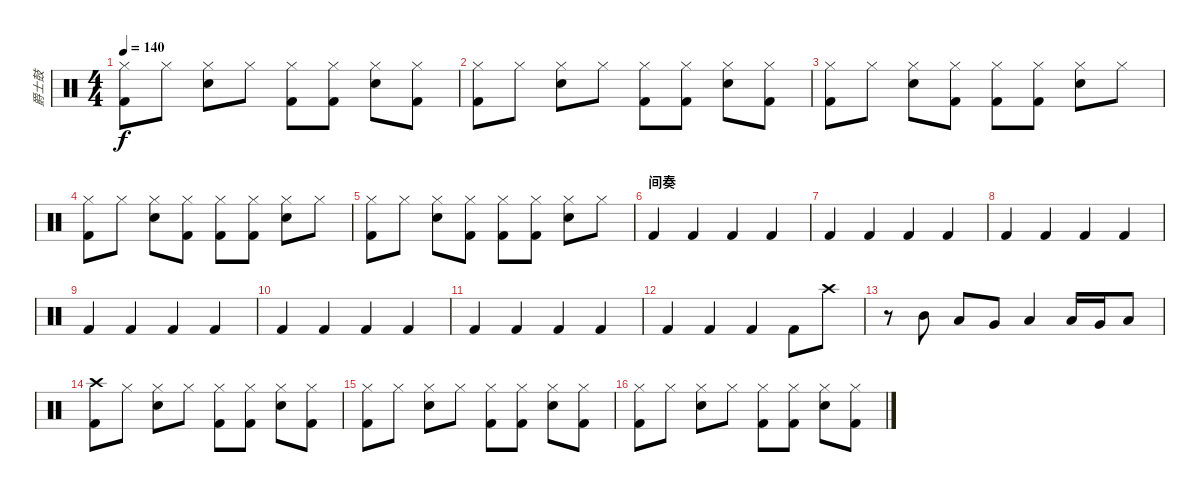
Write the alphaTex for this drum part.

\track ("爵士鼓" "爵士鼓") {instrument percussion}
\staff {score}
\articulation defaults
\ts (4 4)
\tempo 140
\clef neutral
\ks c
("Hi-Hat (closed)" "Kick (hit) 2").8{dy f} "Hi-Hat (closed)".8 ("Hi-Hat (closed)" "Electric Snare (hit)").8 "Hi-Hat (closed)".8 ("Hi-Hat (closed)" "Kick (hit) 2").8 ("Hi-Hat (closed)" "Kick (hit) 2").8 ("Hi-Hat (closed)" "Electric Snare (hit)").8 ("Hi-Hat (closed)" "Kick (hit) 2").8 |
("Hi-Hat (closed)" "Kick (hit) 2").8 "Hi-Hat (closed)".8 ("Hi-Hat (closed)" "Electric Snare (hit)").8 "Hi-Hat (closed)".8 ("Hi-Hat (closed)" "Kick (hit) 2").8 ("Hi-Hat (closed)" "Kick (hit) 2").8 ("Hi-Hat (closed)" "Electric Snare (hit)").8 ("Hi-Hat (closed)" "Kick (hit) 2").8 |
("Hi-Hat (closed)" "Kick (hit) 2").8 "Hi-Hat (closed)".8 ("Hi-Hat (closed)" "Electric Snare (hit)").8 ("Hi-Hat (closed)" "Kick (hit) 2").8 ("Hi-Hat (closed)" "Kick (hit) 2").8 ("Hi-Hat (closed)" "Kick (hit) 2").8 ("Hi-Hat (closed)" "Electric Snare (hit)").8 "Hi-Hat (closed)".8 |
("Hi-Hat (closed)" "Kick (hit) 2").8 "Hi-Hat (closed)".8 ("Hi-Hat (closed)" "Electric Snare (hit)").8 ("Hi-Hat (closed)" "Kick (hit) 2").8 ("Hi-Hat (closed)" "Kick (hit) 2").8 ("Hi-Hat (closed)" "Kick (hit) 2").8 ("Hi-Hat (closed)" "Electric Snare (hit)").8 "Hi-Hat (closed)".8 |
("Hi-Hat (closed)" "Kick (hit) 2").8 "Hi-Hat (closed)".8 ("Hi-Hat (closed)" "Electric Snare (hit)").8 ("Hi-Hat (closed)" "Kick (hit) 2").8 ("Hi-Hat (closed)" "Kick (hit) 2").8 ("Hi-Hat (closed)" "Kick (hit) 2").8 ("Hi-Hat (closed)" "Electric Snare (hit)").8 "Hi-Hat (closed)".8 |
\section ("" "间奏")
"Kick (hit) 2".4 "Kick (hit) 2".4 "Kick (hit) 2".4 "Kick (hit) 2".4 |
"Kick (hit) 2".4 "Kick (hit) 2".4 "Kick (hit) 2".4 "Kick (hit) 2".4 |
"Kick (hit) 2".4 "Kick (hit) 2".4 "Kick (hit) 2".4 "Kick (hit) 2".4 |
"Kick (hit) 2".4 "Kick (hit) 2".4 "Kick (hit) 2".4 "Kick (hit) 2".4 |
"Kick (hit) 2".4 "Kick (hit) 2".4 "Kick (hit) 2".4 "Kick (hit) 2".4 |
"Kick (hit) 2".4 "Kick (hit) 2".4 "Kick (hit) 2".4 "Kick (hit) 2".4 |
"Kick (hit) 2".4 "Kick (hit) 2".4 "Kick (hit) 2".4 "Kick (hit) 2".8 "Crash high (hit)".8 |
r.8 "Mid Tom (hit)".8 "Low Tom (hit)".8 "Very Low Tom (hit)".8 "Low Floor Tom (hit)".4 "Low Tom (hit)".16 "Very Low Tom (hit)".16 "Low Floor Tom (hit)".8 |
("Crash high (hit)" "Kick (hit) 2").8 "Hi-Hat (closed)".8 ("Hi-Hat (closed)" "Electric Snare (hit)").8 "Hi-Hat (closed)".8 ("Hi-Hat (closed)" "Kick (hit) 2").8 ("Hi-Hat (closed)" "Kick (hit) 2").8 ("Hi-Hat (closed)" "Electric Snare (hit)").8 ("Hi-Hat (closed)" "Kick (hit) 2").8 |
("Hi-Hat (closed)" "Kick (hit) 2").8 "Hi-Hat (closed)".8 ("Hi-Hat (closed)" "Electric Snare (hit)").8 "Hi-Hat (closed)".8 ("Hi-Hat (closed)" "Kick (hit) 2").8 ("Hi-Hat (closed)" "Kick (hit) 2").8 ("Hi-Hat (closed)" "Electric Snare (hit)").8 ("Hi-Hat (closed)" "Kick (hit) 2").8 |
("Hi-Hat (closed)" "Kick (hit) 2").8 "Hi-Hat (closed)".8 ("Hi-Hat (closed)" "Electric Snare (hit)").8 "Hi-Hat (closed)".8 ("Hi-Hat (closed)" "Kick (hit) 2").8 ("Hi-Hat (closed)" "Kick (hit) 2").8 ("Hi-Hat (closed)" "Electric Snare (hit)").8 ("Hi-Hat (closed)" "Kick (hit) 2").8
